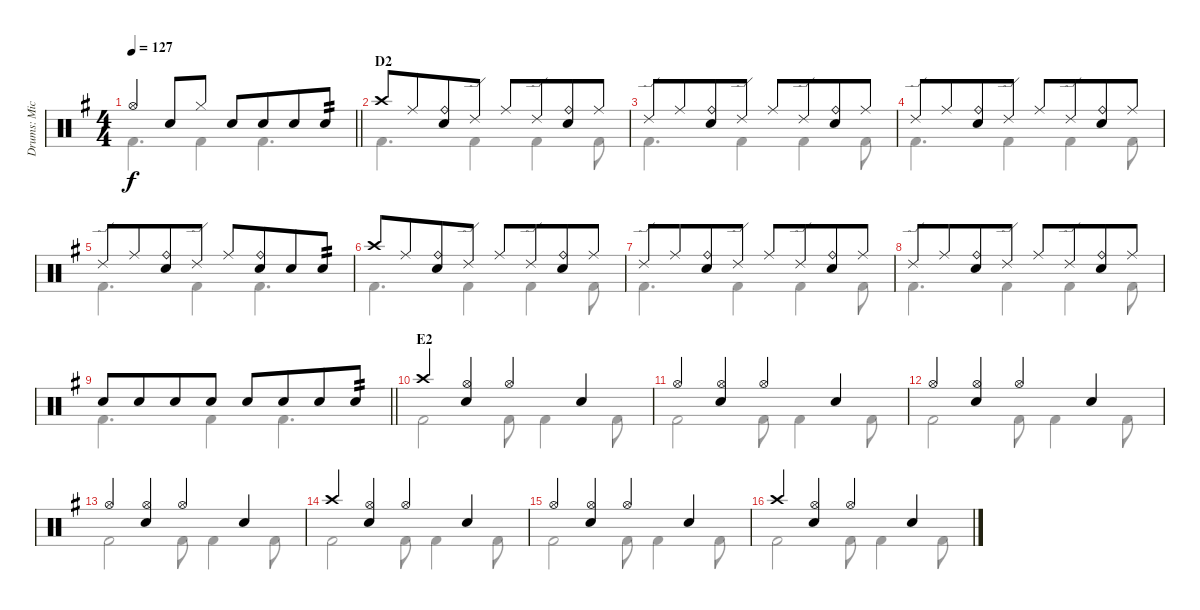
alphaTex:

\track ("Drums: Mick" "Drums: Mic") {instrument percussion}
\staff {score}
\articulation defaults
\voice
\ts (4 4)
\tempo 127
\clef neutral
\barLineRight lightlight
\ks g "Hi-Hat (open)".4{dy f beam merge} "Electric Snare (hit)".8 "Hi-Hat (closed)".8 "Electric Snare (hit)".8 "Electric Snare (hit)".8{beam merge} "Electric Snare (hit)".8 "Electric Snare (hit)".8{tp 2}
|
\section ("" "D2")
"Crash high (hit)".8 "Ride (middle)".8{beam merge} ("Ride (bell)" "Electric Snare (hit)").8 "Ride (edge) 2".8 "Ride (middle)".8 "Ride (edge) 2".8{beam merge} ("Ride (bell)" "Electric Snare (hit)").8 "Ride (middle)".8 |
"Ride (edge) 2".8 "Ride (middle)".8{beam merge} ("Ride (bell)" "Electric Snare (hit)").8 "Ride (edge) 2".8 "Ride (middle)".8 "Ride (edge) 2".8{beam merge} ("Ride (bell)" "Electric Snare (hit)").8 "Ride (middle)".8 |
"Ride (edge) 2".8 "Ride (middle)".8{beam merge} ("Ride (bell)" "Electric Snare (hit)").8 "Ride (edge) 2".8 "Ride (middle)".8 "Ride (edge) 2".8{beam merge} ("Ride (bell)" "Electric Snare (hit)").8 "Ride (middle)".8 |
"Ride (edge) 2".8 "Ride (middle)".8{beam merge} ("Ride (bell)" "Electric Snare (hit)").8 "Ride (edge) 2".8 "Ride (middle)".8{beam merge} ("Ride (bell)" "Electric Snare (hit)").8{beam merge} "Electric Snare (hit)".8 "Electric Snare (hit)".8{tp 2} |
"Crash high (hit)".8 "Ride (middle)".8{beam merge} ("Ride (bell)" "Electric Snare (hit)").8 "Ride (edge) 2".8 "Ride (middle)".8 "Ride (edge) 2".8{beam merge} ("Ride (bell)" "Electric Snare (hit)").8 "Ride (middle)".8 |
"Ride (edge) 2".8 "Ride (middle)".8{beam merge} ("Ride (bell)" "Electric Snare (hit)").8 "Ride (edge) 2".8 "Ride (middle)".8 "Ride (edge) 2".8{beam merge} ("Ride (bell)" "Electric Snare (hit)").8 "Ride (middle)".8 |
"Ride (edge) 2".8 "Ride (middle)".8{beam merge} ("Ride (bell)" "Electric Snare (hit)").8 "Ride (edge) 2".8 "Ride (middle)".8 "Ride (edge) 2".8{beam merge} ("Ride (bell)" "Electric Snare (hit)").8 "Ride (middle)".8 |
\barLineRight lightlight "Electric Snare (hit)".8 "Electric Snare (hit)".8{beam merge} "Electric Snare (hit)".8 "Electric Snare (hit)".8 "Electric Snare (hit)".8{beam merge} "Electric Snare (hit)".8{beam merge} "Electric Snare (hit)".8 "Electric Snare (hit)".8{tp 2}
|
\section ("" "E2")
"Crash high (hit)".4 ("Hi-Hat (open)" "Electric Snare (hit)").4 "Hi-Hat (open)".4 "Electric Snare (hit)".4 |
"Hi-Hat (open)".4 ("Hi-Hat (open)" "Electric Snare (hit)").4 "Hi-Hat (open)".4 "Electric Snare (hit)".4 |
"Hi-Hat (open)".4 ("Hi-Hat (open)" "Electric Snare (hit)").4 "Hi-Hat (open)".4 "Electric Snare (hit)".4 |
"Hi-Hat (open)".4 ("Hi-Hat (open)" "Electric Snare (hit)").4 "Hi-Hat (open)".4 "Electric Snare (hit)".4 |
"Crash high (hit)".4 ("Hi-Hat (open)" "Electric Snare (hit)").4 "Hi-Hat (open)".4 "Electric Snare (hit)".4 |
"Hi-Hat (open)".4 ("Hi-Hat (open)" "Electric Snare (hit)").4 "Hi-Hat (open)".4 "Electric Snare (hit)".4 |
"Crash high (hit)".4 ("Hi-Hat (open)" "Electric Snare (hit)").4 "Hi-Hat (open)".4 "Electric Snare (hit)".4
\voice
\clef neutral
\ottava regular
\simile none
\barLineRight lightlight
\ks g "Kick (hit) 2".4{d dy f} "Kick (hit) 2".4 "Kick (hit) 2".4{d}
|
"Kick (hit) 2".4{d} "Kick (hit) 2".4 "Kick (hit) 2".4 "Kick (hit) 2".8 |
"Kick (hit) 2".4{d} "Kick (hit) 2".4 "Kick (hit) 2".4 "Kick (hit) 2".8 |
"Kick (hit) 2".4{d} "Kick (hit) 2".4 "Kick (hit) 2".4 "Kick (hit) 2".8 |
"Kick (hit) 2".4{d} "Kick (hit) 2".4 "Kick (hit) 2".4{d} |
"Kick (hit) 2".4{d} "Kick (hit) 2".4 "Kick (hit) 2".4 "Kick (hit) 2".8 |
"Kick (hit) 2".4{d} "Kick (hit) 2".4 "Kick (hit) 2".4 "Kick (hit) 2".8 |
"Kick (hit) 2".4{d} "Kick (hit) 2".4 "Kick (hit) 2".4 "Kick (hit) 2".8 |
\barLineRight lightlight "Kick (hit) 2".4{d} "Kick (hit) 2".4 "Kick (hit) 2".4{d}
|
"Kick (hit) 2".2 "Kick (hit) 2".8 "Kick (hit) 2".4 "Kick (hit) 2".8 |
"Kick (hit) 2".2 "Kick (hit) 2".8 "Kick (hit) 2".4 "Kick (hit) 2".8 |
"Kick (hit) 2".2 "Kick (hit) 2".8 "Kick (hit) 2".4 "Kick (hit) 2".8 |
"Kick (hit) 2".2 "Kick (hit) 2".8 "Kick (hit) 2".4 "Kick (hit) 2".8 |
"Kick (hit) 2".2 "Kick (hit) 2".8 "Kick (hit) 2".4 "Kick (hit) 2".8 |
"Kick (hit) 2".2 "Kick (hit) 2".8 "Kick (hit) 2".4 "Kick (hit) 2".8 |
"Kick (hit) 2".2 "Kick (hit) 2".8 "Kick (hit) 2".4 "Kick (hit) 2".8
